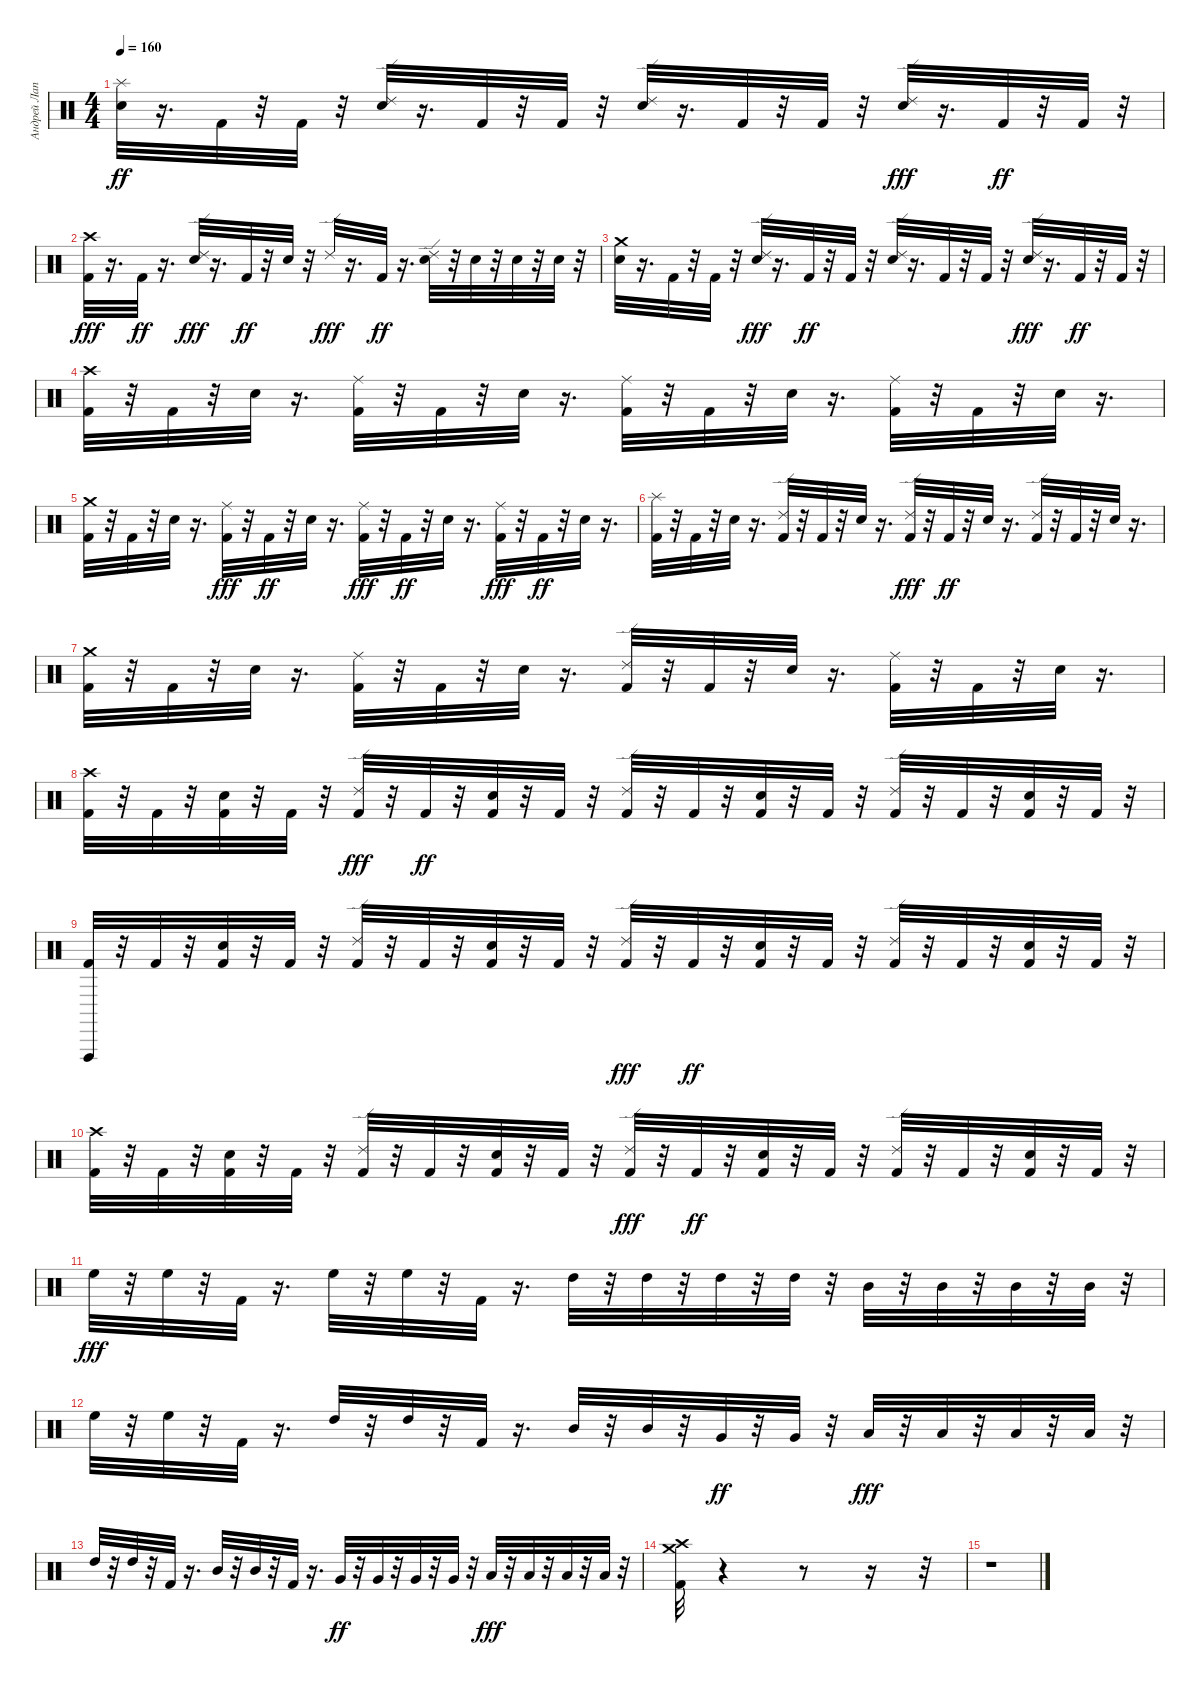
\track ("Андрей Лаптев" "Андрей Лап") {instrument percussion}
\staff {score}
\articulation defaults
\ts (4 4)
\tempo 160
\clef neutral
\ks c
("Electric Snare (hit)" "Splash (hit)").32{dy ff} r.16{d} "Kick (hit) 2".32 r.32 "Kick (hit) 2".32 r.32 ("Ride (edge) 2" "Electric Snare (hit)").32 r.16{d} "Kick (hit) 2".32 r.32 "Kick (hit) 2".32 r.32 ("Ride (edge) 2" "Electric Snare (hit)").32 r.16{d} "Kick (hit) 2".32 r.32 "Kick (hit) 2".32 r.32 ("Electric Snare (hit)" "Ride (edge) 2").32{dy fff} r.16{d} "Kick (hit) 2".32{dy ff} r.32 "Kick (hit) 2".32 r.32 |
("Kick (hit) 2" "Crash high (hit)").32{dy fff} r.16{d} "Kick (hit) 2".32{dy ff} r.16{d} ("Electric Snare (hit)" "Ride (edge) 2").32{dy fff} r.16{d} "Kick (hit) 2".32{dy ff} r.32 "Electric Snare (hit)".32 r.32 "Ride (edge) 2".32{dy fff} r.16{d} "Kick (hit) 2".32{dy ff} r.16{d} ("Ride (edge) 2" "Electric Snare (hit)").32 r.32 "Electric Snare (hit)".32 r.32 "Electric Snare (hit)".32 r.32 "Electric Snare (hit)".32 r.32 |
("Crash medium (hit)" "Electric Snare (hit)").32 r.16{d} "Kick (hit) 2".32 r.32 "Kick (hit) 2".32 r.32 ("Electric Snare (hit)" "Ride (edge) 2").32{dy fff} r.16{d} "Kick (hit) 2".32{dy ff} r.32 "Kick (hit) 2".32 r.32 ("Ride (edge) 2" "Electric Snare (hit)").32 r.16{d} "Kick (hit) 2".32 r.32 "Kick (hit) 2".32 r.32 ("Electric Snare (hit)" "Ride (edge) 2").32{dy fff} r.16{d} "Kick (hit) 2".32{dy ff} r.32 "Kick (hit) 2".32 r.32 |
("Crash high (hit)" "Kick (hit) 2").32 r.32 "Kick (hit) 2".32 r.32 "Electric Snare (hit)".32 r.16{d} ("Ride (middle)" "Kick (hit) 2").32 r.32 "Kick (hit) 2".32 r.32 "Electric Snare (hit)".32 r.16{d} ("Ride (middle)" "Kick (hit) 2").32 r.32 "Kick (hit) 2".32 r.32 "Electric Snare (hit)".32 r.16{d} ("Ride (middle)" "Kick (hit) 2").32 r.32 "Kick (hit) 2".32 r.32 "Electric Snare (hit)".32 r.16{d} |
("Kick (hit) 2" "Crash medium (hit)").32 r.32 "Kick (hit) 2".32 r.32 "Electric Snare (hit)".32 r.16{d} ("Kick (hit) 2" "Ride (middle)").32{dy fff} r.32 "Kick (hit) 2".32{dy ff} r.32 "Electric Snare (hit)".32 r.16{d} ("Kick (hit) 2" "Ride (middle)").32{dy fff} r.32 "Kick (hit) 2".32{dy ff} r.32 "Electric Snare (hit)".32 r.16{d} ("Kick (hit) 2" "Ride (middle)").32{dy fff} r.32 "Kick (hit) 2".32{dy ff} r.32 "Electric Snare (hit)".32 r.16{d} |
("Kick (hit) 2" "Splash (hit)").32 r.32 "Kick (hit) 2".32 r.32 "Electric Snare (hit)".32 r.16{d} ("Ride (edge) 2" "Kick (hit) 2").32 r.32 "Kick (hit) 2".32 r.32 "Electric Snare (hit)".32 r.16{d} ("Kick (hit) 2" "Ride (edge) 2").32{dy fff} r.32 "Kick (hit) 2".32{dy ff} r.32 "Electric Snare (hit)".32 r.16{d} ("Ride (edge) 2" "Kick (hit) 2").32 r.32 "Kick (hit) 2".32 r.32 "Electric Snare (hit)".32 r.16{d} |
("Kick (hit) 2" "Crash medium (hit)").32 r.32 "Kick (hit) 2".32 r.32 "Electric Snare (hit)".32 r.16{d} ("Ride (middle)" "Kick (hit) 2").32 r.32 "Kick (hit) 2".32 r.32 "Electric Snare (hit)".32 r.16{d} ("Ride (edge) 2" "Kick (hit) 2").32 r.32 "Kick (hit) 2".32 r.32 "Electric Snare (hit)".32 r.16{d} ("Ride (middle)" "Kick (hit) 2").32 r.32 "Kick (hit) 2".32 r.32 "Electric Snare (hit)".32 r.16{d} |
("Crash high (hit)" "Kick (hit) 2").32 r.32 "Kick (hit) 2".32 r.32 ("Electric Snare (hit)" "Kick (hit) 2").32 r.32 "Kick (hit) 2".32 r.32 ("Kick (hit) 2" "Ride (edge) 2").32{dy fff} r.32 "Kick (hit) 2".32{dy ff} r.32 ("Electric Snare (hit)" "Kick (hit) 2").32 r.32 "Kick (hit) 2".32 r.32 ("Ride (edge) 2" "Kick (hit) 2").32 r.32 "Kick (hit) 2".32 r.32 ("Electric Snare (hit)" "Kick (hit) 2").32 r.32 "Kick (hit) 2".32 r.32 ("Ride (edge) 2" "Kick (hit) 2").32 r.32 "Kick (hit) 2".32 r.32 ("Kick (hit) 2" "Electric Snare (hit)").32 r.32 "Kick (hit) 2".32 r.32 |
("Vibraslap (hit)" "Kick (hit) 2").32 r.32 "Kick (hit) 2".32 r.32 ("Electric Snare (hit)" "Kick (hit) 2").32 r.32 "Kick (hit) 2".32 r.32 ("Ride (edge) 2" "Kick (hit) 2").32 r.32 "Kick (hit) 2".32 r.32 ("Kick (hit) 2" "Electric Snare (hit)").32 r.32 "Kick (hit) 2".32 r.32 ("Kick (hit) 2" "Ride (edge) 2").32{dy fff} r.32 "Kick (hit) 2".32{dy ff} r.32 ("Electric Snare (hit)" "Kick (hit) 2").32 r.32 "Kick (hit) 2".32 r.32 ("Ride (edge) 2" "Kick (hit) 2").32 r.32 "Kick (hit) 2".32 r.32 ("Kick (hit) 2" "Electric Snare (hit)").32 r.32 "Kick (hit) 2".32 r.32 |
("Crash high (hit)" "Kick (hit) 2").32 r.32 "Kick (hit) 2".32 r.32 ("Kick (hit) 2" "Electric Snare (hit)").32 r.32 "Kick (hit) 2".32 r.32 ("Ride (edge) 2" "Kick (hit) 2").32 r.32 "Kick (hit) 2".32 r.32 ("Kick (hit) 2" "Electric Snare (hit)").32 r.32 "Kick (hit) 2".32 r.32 ("Kick (hit) 2" "Ride (edge) 2").32{dy fff} r.32 "Kick (hit) 2".32{dy ff} r.32 ("Electric Snare (hit)" "Kick (hit) 2").32 r.32 "Kick (hit) 2".32 r.32 ("Ride (edge) 2" "Kick (hit) 2").32 r.32 "Kick (hit) 2".32 r.32 ("Kick (hit) 2" "Electric Snare (hit)").32 r.32 "Kick (hit) 2".32 r.32 |
"High Floor Tom (hit)".32{dy fff} r.32 "High Floor Tom (hit)".32 r.32 "Kick (hit) 2".32 r.16{d} "High Floor Tom (hit)".32 r.32 "High Floor Tom (hit)".32 r.32 "Kick (hit) 2".32 r.16{d} "High Tom (hit)".32 r.32 "High Tom (hit)".32 r.32 "High Tom (hit)".32 r.32 "High Tom (hit)".32 r.32 "Mid Tom (hit)".32 r.32 "Mid Tom (hit)".32 r.32 "Mid Tom (hit)".32 r.32 "Mid Tom (hit)".32 r.32 |
"High Floor Tom (hit)".32 r.32 "High Floor Tom (hit)".32 r.32 "Kick (hit) 2".32 r.16{d} "High Tom (hit)".32 r.32 "High Tom (hit)".32 r.32 "Kick (hit) 2".32 r.16{d} "Mid Tom (hit)".32 r.32 "Mid Tom (hit)".32 r.32 "Very Low Tom (hit)".32{dy ff} r.32 "Very Low Tom (hit)".32 r.32 "Low Tom (hit)".32{dy fff} r.32 "Low Tom (hit)".32 r.32 "Low Tom (hit)".32 r.32 "Low Tom (hit)".32 r.32 |
"High Tom (hit)".32 r.32 "High Tom (hit)".32 r.32 "Kick (hit) 2".32 r.16{d} "Mid Tom (hit)".32 r.32 "Mid Tom (hit)".32 r.32 "Kick (hit) 2".32 r.16{d} "Very Low Tom (hit)".32{dy ff} r.32 "Very Low Tom (hit)".32 r.32 "Very Low Tom (hit)".32 r.32 "Very Low Tom (hit)".32 r.32 "Low Tom (hit)".32{dy fff} r.32 "Low Tom (hit)".32 r.32 "Low Tom (hit)".32 r.32 "Low Tom (hit)".32 r.32 |
("Kick (hit) 2" "Crash high (hit)" "Crash medium (hit)").32 r.4 r.8 r.16 r.32 |
r.1
